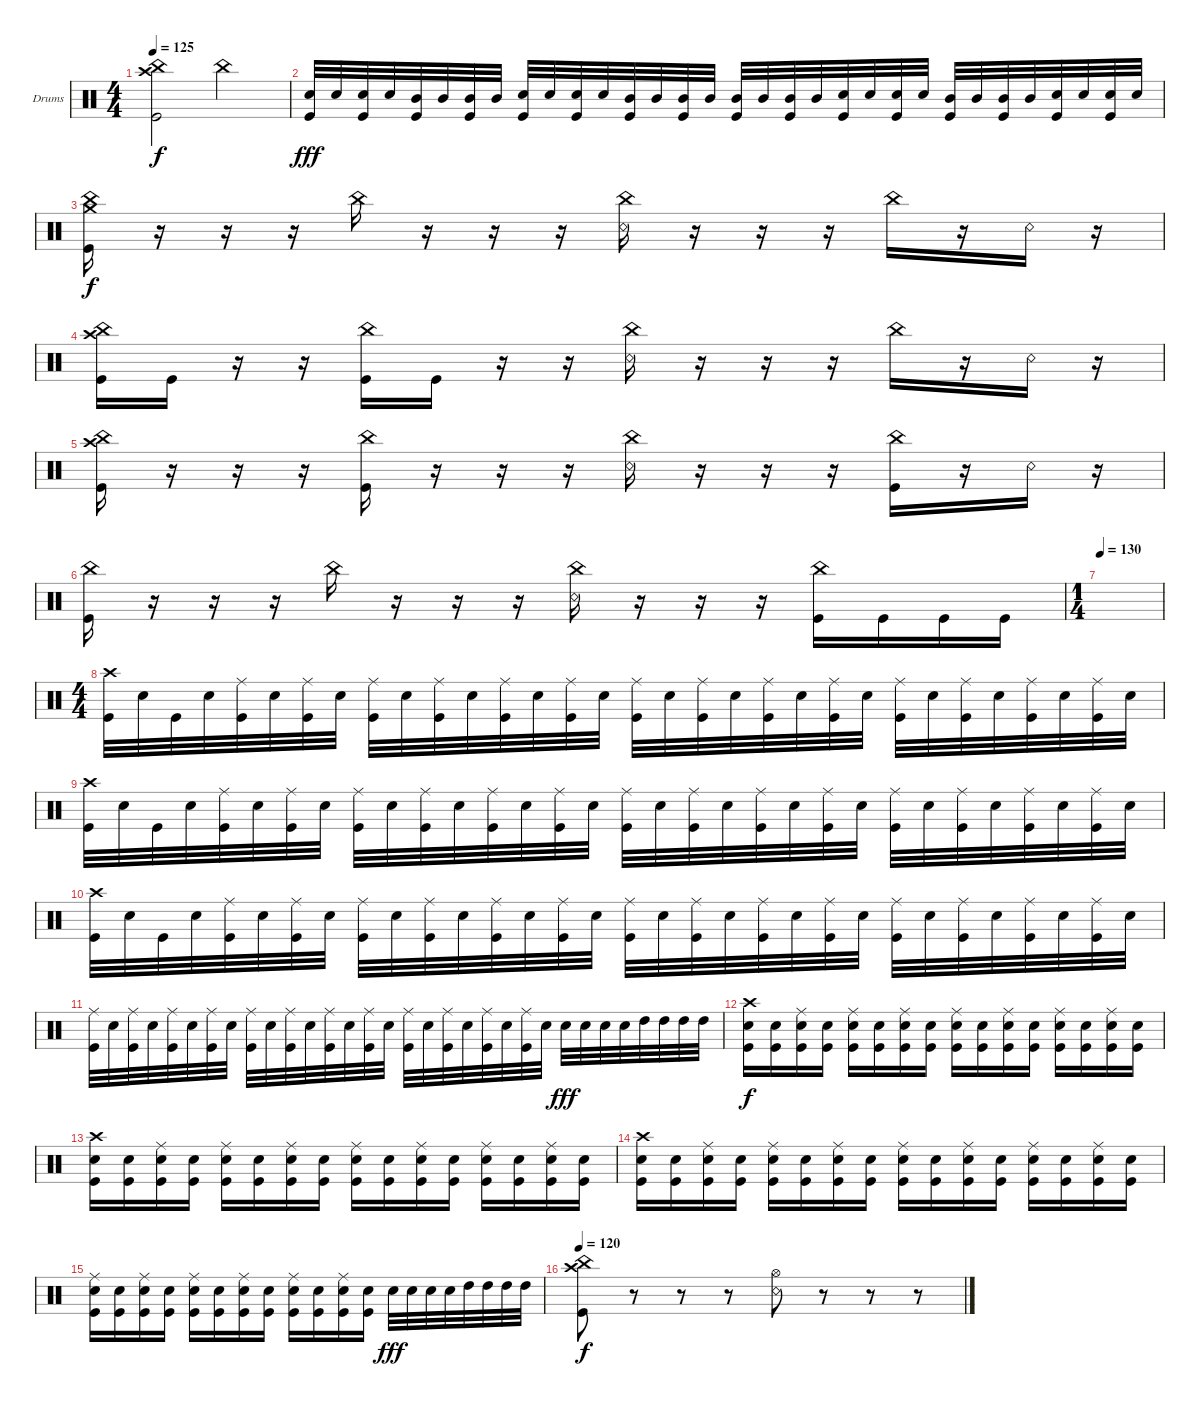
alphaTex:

\defaultSystemsLayout 4
\bracketExtendMode groupsimilarinstruments
\firstSystemTrackNameOrientation horizontal
\otherSystemsTrackNameOrientation horizontal
\track ("Drumkit" "Drums") {instrument percussion}
\staff {score}
\articulation defaults
\ts (4 4)
\tempo 125
\clef neutral
\ks c
("Kick (hit)" "China (hit)" "Crash high (hit)").2{dy f} "China (hit)".2 |
("Snare (hit) 2" "Kick (hit)").32{dy fff} "Snare (hit) 2".32 ("Snare (hit) 2" "Kick (hit)").32 "Snare (hit) 2".32 ("Mid Tom (hit)" "Kick (hit)").32 "Mid Tom (hit)".32 ("Mid Tom (hit)" "Kick (hit)").32 "Mid Tom (hit)".32 ("Snare (hit) 2" "Kick (hit)").32 "Snare (hit) 2".32 ("Snare (hit) 2" "Kick (hit)").32 "Snare (hit) 2".32 ("Mid Tom (hit)" "Kick (hit)").32 "Mid Tom (hit)".32 ("Mid Tom (hit)" "Kick (hit)").32 "Mid Tom (hit)".32 ("Mid Tom (hit)" "Kick (hit)").32 "Mid Tom (hit)".32 ("Mid Tom (hit)" "Kick (hit)").32 "Mid Tom (hit)".32 ("Snare (hit) 2" "Kick (hit)").32 "Snare (hit) 2".32 ("Snare (hit) 2" "Kick (hit)").32 "Snare (hit) 2".32 ("Mid Tom (hit)" "Kick (hit)").32 "Mid Tom (hit)".32 ("Mid Tom (hit)" "Kick (hit)").32 "Mid Tom (hit)".32 ("Snare (hit) 2" "Kick (hit)").32 "Snare (hit) 2".32 ("Snare (hit) 2" "Kick (hit)").32 "Snare (hit) 2".32 |
("China (hit)" "Kick (hit)" "Crash medium (hit)").16{dy f} r.16 r.16 r.16 "China (hit)".16 r.16 r.16 r.16 ("China (hit)" "Snare (rim shot)").16 r.16 r.16 r.16 "China (hit)".16 r.16 "Snare (rim shot)".16 r.16 |
("China (hit)" "Kick (hit)" "Crash high (hit)").16 "Kick (hit)".16 r.16 r.16 ("China (hit)" "Kick (hit)").16 "Kick (hit)".16 r.16 r.16 ("China (hit)" "Snare (rim shot)").16 r.16 r.16 r.16 "China (hit)".16 r.16 "Snare (rim shot)".16 r.16 |
("China (hit)" "Kick (hit)" "Crash high (hit)").16 r.16 r.16 r.16 ("China (hit)" "Kick (hit)").16 r.16 r.16 r.16 ("China (hit)" "Snare (rim shot)").16 r.16 r.16 r.16 ("China (hit)" "Kick (hit)").16 r.16 "Snare (rim shot)".16 r.16 |
("China (hit)" "Kick (hit)").16 r.16 r.16 r.16 "China (hit)".16 r.16 r.16 r.16 ("China (hit)" "Snare (rim shot)").16 r.16 r.16 r.16 ("China (hit)" "Kick (hit)").16 "Kick (hit)".16 "Kick (hit)".16 "Kick (hit)".16 |
\ts (1 4)
\tempo 130
|
\ts (4 4)
("Crash high (hit)" "Kick (hit)").32 "Snare (hit) 2".32 "Kick (hit)".32 "Snare (hit) 2".32 ("Ride (middle)" "Kick (hit)").32 "Snare (hit) 2".32 ("Ride (middle)" "Kick (hit)").32 "Snare (hit) 2".32 ("Ride (middle)" "Kick (hit)").32 "Snare (hit) 2".32 ("Ride (middle)" "Kick (hit)").32 "Snare (hit) 2".32 ("Ride (middle)" "Kick (hit)").32 "Snare (hit) 2".32 ("Ride (middle)" "Kick (hit)").32 "Snare (hit) 2".32 ("Ride (middle)" "Kick (hit)").32 "Snare (hit) 2".32 ("Ride (middle)" "Kick (hit)").32 "Snare (hit) 2".32 ("Ride (middle)" "Kick (hit)").32 "Snare (hit) 2".32 ("Ride (middle)" "Kick (hit)").32 "Snare (hit) 2".32 ("Ride (middle)" "Kick (hit)").32 "Snare (hit) 2".32 ("Ride (middle)" "Kick (hit)").32 "Snare (hit) 2".32 ("Ride (middle)" "Kick (hit)").32 "Snare (hit) 2".32 ("Ride (middle)" "Kick (hit)").32 "Snare (hit) 2".32 |
("Crash high (hit)" "Kick (hit)").32 "Snare (hit) 2".32 "Kick (hit)".32 "Snare (hit) 2".32 ("Ride (middle)" "Kick (hit)").32 "Snare (hit) 2".32 ("Ride (middle)" "Kick (hit)").32 "Snare (hit) 2".32 ("Ride (middle)" "Kick (hit)").32 "Snare (hit) 2".32 ("Ride (middle)" "Kick (hit)").32 "Snare (hit) 2".32 ("Ride (middle)" "Kick (hit)").32 "Snare (hit) 2".32 ("Ride (middle)" "Kick (hit)").32 "Snare (hit) 2".32 ("Ride (middle)" "Kick (hit)").32 "Snare (hit) 2".32 ("Ride (middle)" "Kick (hit)").32 "Snare (hit) 2".32 ("Ride (middle)" "Kick (hit)").32 "Snare (hit) 2".32 ("Ride (middle)" "Kick (hit)").32 "Snare (hit) 2".32 ("Ride (middle)" "Kick (hit)").32 "Snare (hit) 2".32 ("Ride (middle)" "Kick (hit)").32 "Snare (hit) 2".32 ("Ride (middle)" "Kick (hit)").32 "Snare (hit) 2".32 ("Ride (middle)" "Kick (hit)").32 "Snare (hit) 2".32 |
("Crash high (hit)" "Kick (hit)").32 "Snare (hit) 2".32 "Kick (hit)".32 "Snare (hit) 2".32 ("Ride (middle)" "Kick (hit)").32 "Snare (hit) 2".32 ("Ride (middle)" "Kick (hit)").32 "Snare (hit) 2".32 ("Ride (middle)" "Kick (hit)").32 "Snare (hit) 2".32 ("Ride (middle)" "Kick (hit)").32 "Snare (hit) 2".32 ("Ride (middle)" "Kick (hit)").32 "Snare (hit) 2".32 ("Ride (middle)" "Kick (hit)").32 "Snare (hit) 2".32 ("Ride (middle)" "Kick (hit)").32 "Snare (hit) 2".32 ("Ride (middle)" "Kick (hit)").32 "Snare (hit) 2".32 ("Ride (middle)" "Kick (hit)").32 "Snare (hit) 2".32 ("Ride (middle)" "Kick (hit)").32 "Snare (hit) 2".32 ("Ride (middle)" "Kick (hit)").32 "Snare (hit) 2".32 ("Ride (middle)" "Kick (hit)").32 "Snare (hit) 2".32 ("Ride (middle)" "Kick (hit)").32 "Snare (hit) 2".32 ("Ride (middle)" "Kick (hit)").32 "Snare (hit) 2".32 |
("Kick (hit)" "Ride (middle)").32 "Snare (hit) 2".32 ("Kick (hit)" "Ride (middle)").32 "Snare (hit) 2".32 ("Ride (middle)" "Kick (hit)").32 "Snare (hit) 2".32 ("Ride (middle)" "Kick (hit)").32 "Snare (hit) 2".32 ("Ride (middle)" "Kick (hit)").32 "Snare (hit) 2".32 ("Ride (middle)" "Kick (hit)").32 "Snare (hit) 2".32 ("Ride (middle)" "Kick (hit)").32 "Snare (hit) 2".32 ("Ride (middle)" "Kick (hit)").32 "Snare (hit) 2".32 ("Ride (middle)" "Kick (hit)").32 "Snare (hit) 2".32 ("Ride (middle)" "Kick (hit)").32 "Snare (hit) 2".32 ("Ride (middle)" "Kick (hit)").32 "Snare (hit) 2".32 ("Ride (middle)" "Kick (hit)").32 "Snare (hit) 2".32 "Snare (hit) 2".32{dy fff} "Snare (hit) 2".32 "Snare (hit) 2".32 "Snare (hit) 2".32 "High Tom (hit)".32 "High Tom (hit)".32 "High Tom (hit)".32 "High Tom (hit)".32 |
("Kick (hit)" "Snare (hit) 2" "Crash high (hit)").16{dy f} ("Kick (hit)" "Snare (hit) 2").16 ("Kick (hit)" "Snare (hit) 2" "Ride (middle)").16 ("Kick (hit)" "Snare (hit) 2").16 ("Kick (hit)" "Snare (hit) 2" "Ride (middle)").16 ("Kick (hit)" "Snare (hit) 2").16 ("Kick (hit)" "Snare (hit) 2" "Ride (middle)").16 ("Kick (hit)" "Snare (hit) 2").16 ("Kick (hit)" "Snare (hit) 2" "Ride (middle)").16 ("Kick (hit)" "Snare (hit) 2").16 ("Kick (hit)" "Snare (hit) 2" "Ride (middle)").16 ("Kick (hit)" "Snare (hit) 2").16 ("Kick (hit)" "Snare (hit) 2" "Ride (middle)").16 ("Kick (hit)" "Snare (hit) 2").16 ("Kick (hit)" "Snare (hit) 2" "Ride (middle)").16 ("Kick (hit)" "Snare (hit) 2").16 |
("Kick (hit)" "Snare (hit) 2" "Crash high (hit)").16 ("Kick (hit)" "Snare (hit) 2").16 ("Kick (hit)" "Snare (hit) 2" "Ride (middle)").16 ("Kick (hit)" "Snare (hit) 2").16 ("Kick (hit)" "Snare (hit) 2" "Ride (middle)").16 ("Kick (hit)" "Snare (hit) 2").16 ("Kick (hit)" "Snare (hit) 2" "Ride (middle)").16 ("Kick (hit)" "Snare (hit) 2").16 ("Kick (hit)" "Snare (hit) 2" "Ride (middle)").16 ("Kick (hit)" "Snare (hit) 2").16 ("Kick (hit)" "Snare (hit) 2" "Ride (middle)").16 ("Kick (hit)" "Snare (hit) 2").16 ("Kick (hit)" "Snare (hit) 2" "Ride (middle)").16 ("Kick (hit)" "Snare (hit) 2").16 ("Kick (hit)" "Snare (hit) 2" "Ride (middle)").16 ("Kick (hit)" "Snare (hit) 2").16 |
("Kick (hit)" "Snare (hit) 2" "Crash high (hit)").16 ("Kick (hit)" "Snare (hit) 2").16 ("Kick (hit)" "Snare (hit) 2" "Ride (middle)").16 ("Kick (hit)" "Snare (hit) 2").16 ("Kick (hit)" "Snare (hit) 2" "Ride (middle)").16 ("Kick (hit)" "Snare (hit) 2").16 ("Kick (hit)" "Snare (hit) 2" "Ride (middle)").16 ("Kick (hit)" "Snare (hit) 2").16 ("Kick (hit)" "Snare (hit) 2" "Ride (middle)").16 ("Kick (hit)" "Snare (hit) 2").16 ("Kick (hit)" "Snare (hit) 2" "Ride (middle)").16 ("Kick (hit)" "Snare (hit) 2").16 ("Kick (hit)" "Snare (hit) 2" "Ride (middle)").16 ("Kick (hit)" "Snare (hit) 2").16 ("Kick (hit)" "Snare (hit) 2" "Ride (middle)").16 ("Kick (hit)" "Snare (hit) 2").16 |
("Kick (hit)" "Snare (hit) 2" "Ride (middle)").16 ("Kick (hit)" "Snare (hit) 2").16 ("Kick (hit)" "Snare (hit) 2" "Ride (middle)").16 ("Kick (hit)" "Snare (hit) 2").16 ("Kick (hit)" "Snare (hit) 2" "Ride (middle)").16 ("Kick (hit)" "Snare (hit) 2").16 ("Kick (hit)" "Snare (hit) 2" "Ride (middle)").16 ("Kick (hit)" "Snare (hit) 2").16 ("Kick (hit)" "Snare (hit) 2" "Ride (middle)").16 ("Kick (hit)" "Snare (hit) 2").16 ("Kick (hit)" "Snare (hit) 2" "Ride (middle)").16 ("Kick (hit)" "Snare (hit) 2").16 "Snare (hit) 2".32{dy fff} "Snare (hit) 2".32 "Snare (hit) 2".32 "Snare (hit) 2".32 "High Tom (hit)".32 "High Tom (hit)".32 "High Tom (hit)".32 "High Tom (hit)".32 |
\tempo 120
("Kick (hit)" "China (hit)" "Crash high (hit)").8{dy f} r.8 r.8 r.8 ("Snare (rim shot)" "Hi-Hat (open)").8 r.8 r.8 r.8
